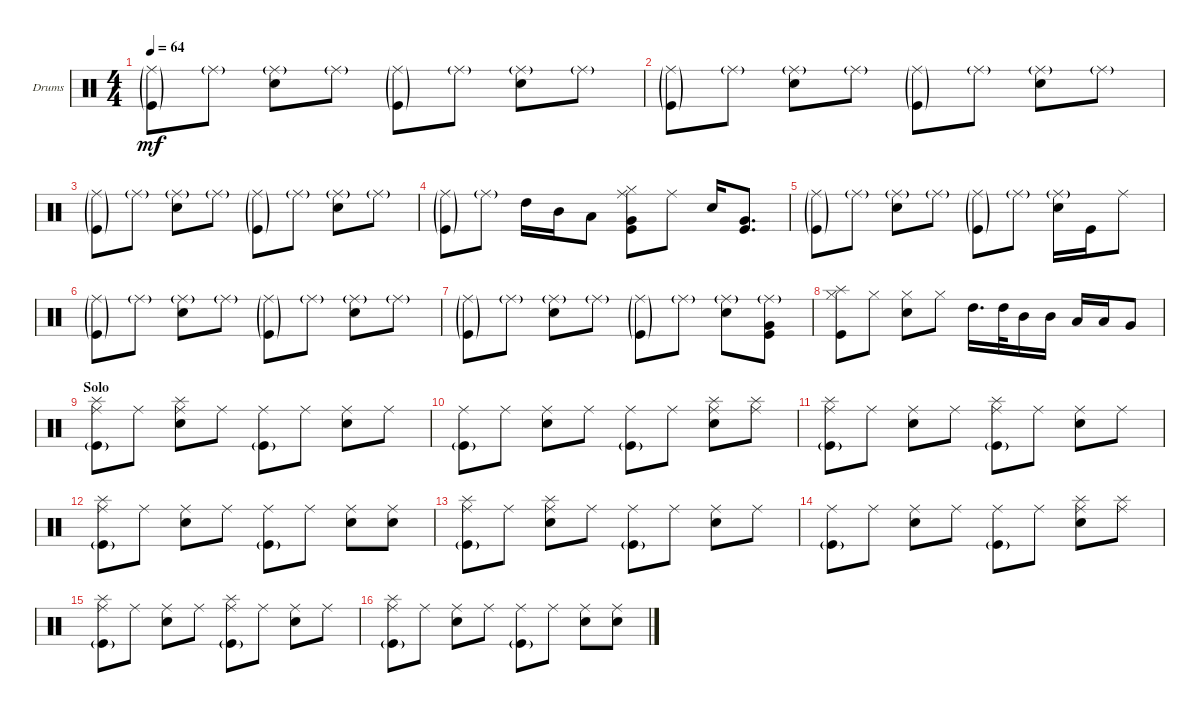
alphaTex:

\defaultSystemsLayout 4
\bracketExtendMode groupsimilarinstruments
\firstSystemTrackNameOrientation horizontal
\otherSystemsTrackNameOrientation horizontal
\track ("Drumkit" "Drums") {instrument percussion}
\staff {score}
\articulation defaults
\ts (4 4)
\tempo 64
\clef neutral
\ks c
("Ride (middle)"{g} "Kick (hit)"{g}).8{dy mf} "Ride (middle)"{g}.8 ("Ride (middle)"{g} "Snare (hit) 2").8 "Ride (middle)"{g}.8 ("Ride (middle)"{g} "Kick (hit)"{g}).8 "Ride (middle)"{g}.8 ("Ride (middle)"{g} "Snare (hit) 2").8 "Ride (middle)"{g}.8 |
("Ride (middle)"{g} "Kick (hit)"{g}).8 "Ride (middle)"{g}.8 ("Ride (middle)"{g} "Snare (hit) 2").8 "Ride (middle)"{g}.8 ("Ride (middle)"{g} "Kick (hit)"{g}).8 "Ride (middle)"{g}.8 ("Ride (middle)"{g} "Snare (hit) 2").8 "Ride (middle)"{g}.8 |
("Ride (middle)"{g} "Kick (hit)"{g}).8 "Ride (middle)"{g}.8 ("Ride (middle)"{g} "Snare (hit) 2").8 "Ride (middle)"{g}.8 ("Ride (middle)"{g} "Kick (hit)"{g}).8 "Ride (middle)"{g}.8 ("Ride (middle)"{g} "Snare (hit) 2").8 "Ride (middle)"{g}.8 |
("Ride (middle)"{g} "Kick (hit)"{g}).8 "Ride (middle)"{g}.8 "High Tom (hit)".16 "Mid Tom (hit)".16 "Low Tom (hit)".8 ("Ride (middle)" "Hi-Hat (closed)" "Kick (hit)" "Very Low Tom (hit)").8 "Ride (middle)".8 "Snare (hit) 2".16 ("Very Low Tom (hit)" "Kick (hit)").8{d} |
("Ride (middle)"{g} "Kick (hit)"{g}).8 "Ride (middle)"{g}.8 ("Ride (middle)"{g} "Snare (hit) 2").8 "Ride (middle)"{g}.8 ("Ride (middle)"{g} "Kick (hit)"{g}).8 "Ride (middle)"{g}.8 ("Ride (middle)"{g} "Snare (hit) 2").16 "Kick (hit)".16 "Ride (middle)".8 |
("Ride (middle)"{g} "Kick (hit)"{g}).8 "Ride (middle)"{g}.8 ("Ride (middle)"{g} "Snare (hit) 2").8 "Ride (middle)"{g}.8 ("Ride (middle)"{g} "Kick (hit)"{g}).8 "Ride (middle)"{g}.8 ("Ride (middle)"{g} "Snare (hit) 2").8 "Ride (middle)"{g}.8 |
("Ride (middle)"{g} "Kick (hit)"{g}).8 "Ride (middle)"{g}.8 ("Ride (middle)"{g} "Snare (hit) 2").8 "Ride (middle)"{g}.8 ("Ride (middle)"{g} "Kick (hit)"{g}).8 "Ride (middle)"{g}.8 ("Ride (middle)"{g} "Snare (hit) 2").8 ("Ride (middle)"{g} "Kick (hit)" "Very Low Tom (hit)").8 |
("Kick (hit)" "Splash (hit)" "Hi-Hat (closed)").8 "Hi-Hat (closed)".8 ("Snare (hit) 2" "Hi-Hat (closed)").8 "Hi-Hat (closed)".8 "High Tom (hit)".16{d} "High Tom (hit)".32 "Mid Tom (hit)".16 "Mid Tom (hit)".16 "Low Tom (hit)".16 "Low Tom (hit)".16 "Very Low Tom (hit)".8 |
\section ("" "Solo")
("Ride (middle)" "Splash (hit)" "Kick (hit)"{g}).8 "Ride (middle)".8 ("Ride (middle)" "Snare (hit) 2" "Splash (hit)").8 "Ride (middle)".8 ("Ride (middle)" "Kick (hit)"{g}).8 "Ride (middle)".8 ("Ride (middle)" "Snare (hit) 2").8 "Ride (middle)".8 |
("Ride (middle)" "Kick (hit)"{g}).8 "Ride (middle)".8 ("Ride (middle)" "Snare (hit) 2").8 "Ride (middle)".8 ("Ride (middle)" "Kick (hit)"{g}).8 "Ride (middle)".8 ("Ride (middle)" "Snare (hit) 2" "Splash (hit)").8 ("Ride (middle)" "Splash (hit)").8 |
("Ride (middle)" "Splash (hit)" "Kick (hit)"{g}).8 "Ride (middle)".8 ("Ride (middle)" "Snare (hit) 2").8 "Ride (middle)".8 ("Ride (middle)" "Kick (hit)"{g} "Splash (hit)").8 "Ride (middle)".8 ("Ride (middle)" "Snare (hit) 2").8 "Ride (middle)".8 |
("Ride (middle)" "Kick (hit)"{g} "Splash (hit)").8 "Ride (middle)".8 ("Ride (middle)" "Snare (hit) 2").8 "Ride (middle)".8 ("Ride (middle)" "Kick (hit)"{g}).8 "Ride (middle)".8 ("Ride (middle)" "Snare (hit) 2").8 ("Ride (middle)" "Snare (hit) 2").8 |
("Ride (middle)" "Splash (hit)" "Kick (hit)"{g}).8 "Ride (middle)".8 ("Ride (middle)" "Snare (hit) 2" "Splash (hit)").8 "Ride (middle)".8 ("Ride (middle)" "Kick (hit)"{g}).8 "Ride (middle)".8 ("Ride (middle)" "Snare (hit) 2").8 "Ride (middle)".8 |
("Ride (middle)" "Kick (hit)"{g}).8 "Ride (middle)".8 ("Ride (middle)" "Snare (hit) 2").8 "Ride (middle)".8 ("Ride (middle)" "Kick (hit)"{g}).8 "Ride (middle)".8 ("Ride (middle)" "Snare (hit) 2" "Splash (hit)").8 ("Ride (middle)" "Splash (hit)").8 |
("Ride (middle)" "Splash (hit)" "Kick (hit)"{g}).8 "Ride (middle)".8 ("Ride (middle)" "Snare (hit) 2").8 "Ride (middle)".8 ("Ride (middle)" "Kick (hit)"{g} "Splash (hit)").8 "Ride (middle)".8 ("Ride (middle)" "Snare (hit) 2").8 "Ride (middle)".8 |
("Ride (middle)" "Kick (hit)"{g} "Splash (hit)").8 "Ride (middle)".8 ("Ride (middle)" "Snare (hit) 2").8 "Ride (middle)".8 ("Ride (middle)" "Kick (hit)"{g}).8 "Ride (middle)".8 ("Ride (middle)" "Snare (hit) 2").8 ("Ride (middle)" "Snare (hit) 2").8
